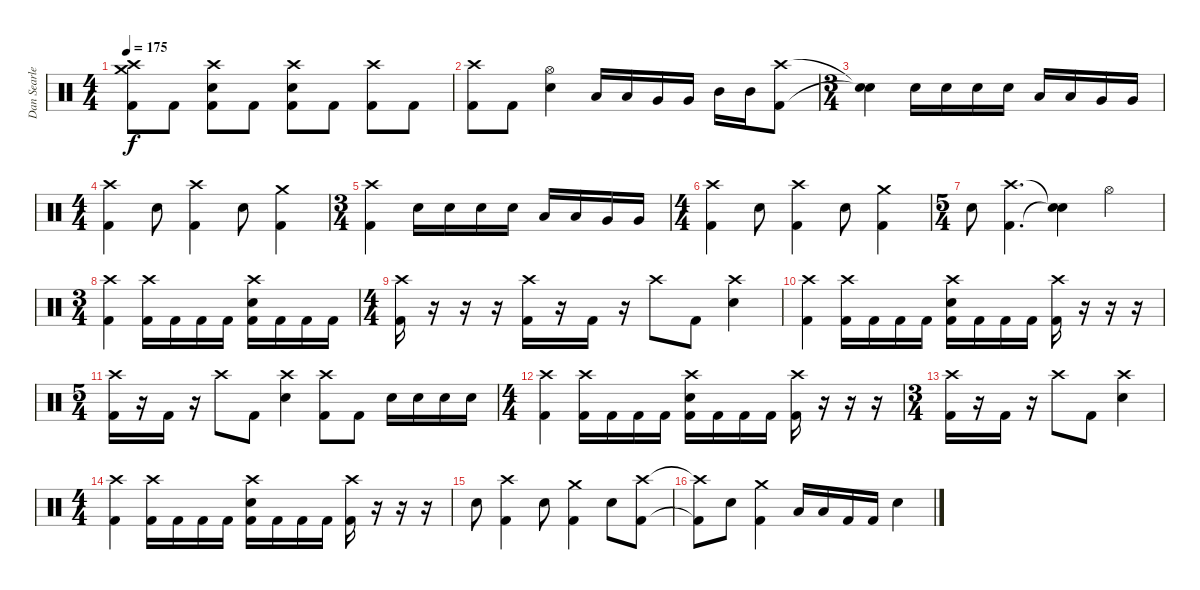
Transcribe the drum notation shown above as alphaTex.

\track ("Dan Searle" "Dan Searle") {instrument percussion}
\staff {score}
\articulation defaults
\ts (4 4)
\tempo 175
\clef neutral
\ks c
("Crash high (hit)" "Crash medium (hit)" "Kick (hit) 2").8{dy f} "Kick (hit) 2".8 ("Crash high (hit)" "Snare (hit) 2" "Kick (hit) 2").8 "Kick (hit) 2".8 ("Crash high (hit)" "Snare (hit) 2" "Kick (hit) 2").8 "Kick (hit) 2".8 ("Crash high (hit)" "Kick (hit) 2").8 "Kick (hit) 2".8 |
("Crash high (hit)" "Kick (hit) 2").8 "Kick (hit) 2".8 ("Hi-Hat (open)" "Snare (hit) 2").4 "Low Floor Tom (hit)".16 "Low Floor Tom (hit)".16 "Very Low Tom (hit)".16 "Very Low Tom (hit)".16 "Mid Tom (hit)".16 "Mid Tom (hit)".16 ("Crash high (hit)" "Kick (hit) 2").8 |
\ts (3 4)
("Snare (hit)"{t} "Snare (hit)"{t}).4 "Snare (hit) 2".16 "Snare (hit) 2".16 "Snare (hit) 2".16 "Snare (hit) 2".16 "Low Floor Tom (hit)".16 "Low Floor Tom (hit)".16 "Very Low Tom (hit)".16 "Very Low Tom (hit)".16 |
\ts (4 4)
("Crash high (hit)" "Kick (hit) 2").4 "Snare (hit) 2".8 ("Crash high (hit)" "Kick (hit) 2").4 "Snare (hit) 2".8 ("Crash medium (hit)" "Kick (hit) 2").4 |
\ts (3 4)
("Crash high (hit)" "Kick (hit) 2").4 "Snare (hit) 2".16 "Snare (hit) 2".16 "Snare (hit) 2".16 "Snare (hit) 2".16 "Low Floor Tom (hit)".16 "Low Floor Tom (hit)".16 "Very Low Tom (hit)".16 "Very Low Tom (hit)".16 |
\ts (4 4)
("Crash high (hit)" "Kick (hit) 2").4 "Snare (hit) 2".8 ("Crash high (hit)" "Kick (hit) 2").4 "Snare (hit) 2".8 ("Crash medium (hit)" "Kick (hit) 2").4 |
\ts (5 4)
"Snare (hit) 2".8 ("Crash high (hit)" "Kick (hit) 2").4{d} ("Snare (hit)"{t} "Snare (hit)"{t}).4 "Hi-Hat (open)".2 |
\ts (3 4)
("Crash high (hit)" "Kick (hit) 2").4 ("Crash high (hit)" "Kick (hit) 2").16 "Kick (hit) 2".16 "Kick (hit) 2".16 "Kick (hit) 2".16 ("Crash high (hit)" "Snare (hit) 2" "Kick (hit) 2").16 "Kick (hit) 2".16 "Kick (hit) 2".16 "Kick (hit) 2".16 |
\ts (4 4)
("Crash high (hit)" "Kick (hit) 2").16 r.16 r.16 r.16 ("Crash high (hit)" "Kick (hit) 2").16 r.16 "Kick (hit) 2".16 r.16 "Crash high (hit)".8 "Kick (hit) 2".8 ("Crash high (hit)" "Snare (hit) 2").4 |
("Crash high (hit)" "Kick (hit) 2").4 ("Crash high (hit)" "Kick (hit) 2").16 "Kick (hit) 2".16 "Kick (hit) 2".16 "Kick (hit) 2".16 ("Crash high (hit)" "Snare (hit) 2" "Kick (hit) 2").16 "Kick (hit) 2".16 "Kick (hit) 2".16 "Kick (hit) 2".16 ("Crash high (hit)" "Kick (hit) 2").16 r.16 r.16 r.16 |
\ts (5 4)
("Crash high (hit)" "Kick (hit) 2").16 r.16 "Kick (hit) 2".16 r.16 "Crash high (hit)".8 "Kick (hit) 2".8 ("Crash high (hit)" "Snare (hit) 2").4 ("Crash high (hit)" "Kick (hit) 2").8 "Kick (hit) 2".8 "Snare (hit) 2".16 "Snare (hit) 2".16 "Snare (hit) 2".16 "Snare (hit) 2".16 |
\ts (4 4)
("Crash high (hit)" "Kick (hit) 2").4 ("Crash high (hit)" "Kick (hit) 2").16 "Kick (hit) 2".16 "Kick (hit) 2".16 "Kick (hit) 2".16 ("Crash high (hit)" "Snare (hit) 2" "Kick (hit) 2").16 "Kick (hit) 2".16 "Kick (hit) 2".16 "Kick (hit) 2".16 ("Crash high (hit)" "Kick (hit) 2").16 r.16 r.16 r.16 |
\ts (3 4)
("Crash high (hit)" "Kick (hit) 2").16 r.16 "Kick (hit) 2".16 r.16 "Crash high (hit)".8 "Kick (hit) 2".8 ("Crash high (hit)" "Snare (hit) 2").4 |
\ts (4 4)
("Crash high (hit)" "Kick (hit) 2").4 ("Crash high (hit)" "Kick (hit) 2").16 "Kick (hit) 2".16 "Kick (hit) 2".16 "Kick (hit) 2".16 ("Crash high (hit)" "Snare (hit) 2" "Kick (hit) 2").16 "Kick (hit) 2".16 "Kick (hit) 2".16 "Kick (hit) 2".16 ("Crash high (hit)" "Kick (hit) 2").16 r.16 r.16 r.16 |
"Snare (hit) 2".8 ("Crash high (hit)" "Kick (hit) 2").4 "Snare (hit) 2".8 ("Crash medium (hit)" "Kick (hit) 2").4 "Snare (hit) 2".8 ("Crash high (hit)" "Kick (hit) 2").8 |
("Crash high (hit)"{t} "Kick (hit) 2"{t}).8 "Snare (hit) 2".8 ("Crash medium (hit)" "Kick (hit) 2").4 "Low Floor Tom (hit)".16 "Low Floor Tom (hit)".16 "Kick (hit) 2".16 "Kick (hit) 2".16 "Snare (hit) 2".4
